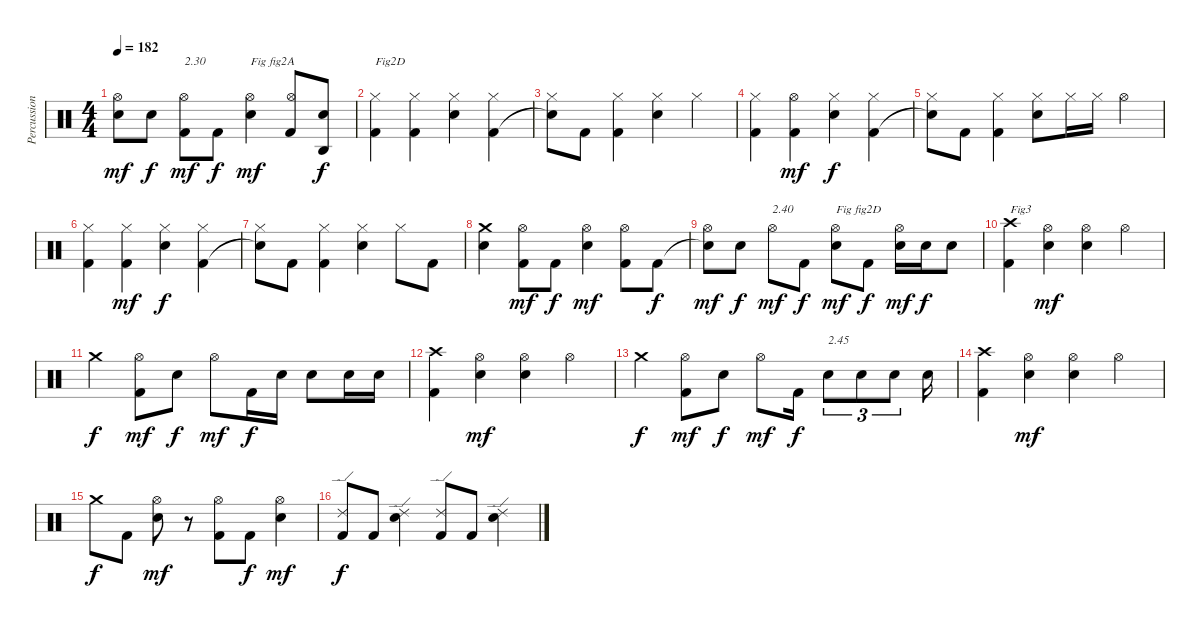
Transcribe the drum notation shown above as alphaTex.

\track ("Percussions" "Percussion") {instrument percussion}
\staff {score}
\articulation defaults
\ts (4 4)
\tempo 182
\clef neutral
\ks c
("Snare (hit)"{t} "Hi-Hat (open)").8{dy mf} "Electric Snare (hit)".8{dy f} ("Kick (hit) 2" "Hi-Hat (open)").8{txt "2.30" dy mf} "Kick (hit) 2".8{dy f} ("Electric Snare (hit)" "Hi-Hat (open)").4{txt "Fig fig2A" dy mf} ("Kick (hit) 2" "Hi-Hat (open)").8 ("Electric Snare (hit)" "Agogo high (hit)").8{dy f} |
("Kick (hit) 2" "Hi-Hat (closed)").4{txt "Fig2D"} ("Kick (hit) 2" "Hi-Hat (closed)").4 ("Electric Snare (hit)" "Hi-Hat (closed)").4 ("Kick (hit) 2" "Hi-Hat (closed)").4 |
("Snare (hit)"{t} "Hi-Hat (closed)").8 "Kick (hit) 2".8 ("Kick (hit) 2" "Hi-Hat (closed)").4 ("Electric Snare (hit)" "Hi-Hat (closed)").4 "Hi-Hat (closed)".4 |
("Kick (hit) 2" "Hi-Hat (closed)").4 ("Kick (hit) 2" "Hi-Hat (open)").4{dy mf} ("Electric Snare (hit)" "Hi-Hat (closed)").4{dy f} ("Kick (hit) 2" "Hi-Hat (closed)").4 |
("Snare (hit)"{t} "Hi-Hat (closed)").8 "Kick (hit) 2".8 ("Kick (hit) 2" "Hi-Hat (closed)").4 ("Electric Snare (hit)" "Hi-Hat (closed)").8 "Hi-Hat (closed)".16 "Hi-Hat (closed)".16 "Hi-Hat (open)".4 |
("Kick (hit) 2" "Hi-Hat (closed)").4 ("Kick (hit) 2" "Hi-Hat (closed)").4{dy mf} ("Electric Snare (hit)" "Hi-Hat (closed)").4{dy f} ("Kick (hit) 2" "Hi-Hat (closed)").4 |
("Snare (hit)"{t} "Hi-Hat (closed)").8 "Kick (hit) 2".8 ("Kick (hit) 2" "Hi-Hat (closed)").4 ("Electric Snare (hit)" "Hi-Hat (closed)").4 "Hi-Hat (closed)".8 "Kick (hit) 2".8 |
("Electric Snare (hit)" "Crash medium (hit)").4 ("Kick (hit) 2" "Hi-Hat (open)").8{dy mf} "Kick (hit) 2".8{dy f} ("Electric Snare (hit)" "Hi-Hat (open)").4{dy mf} ("Kick (hit) 2" "Hi-Hat (open)").8 "Kick (hit) 2".8{dy f} |
("Snare (hit)"{t} "Hi-Hat (open)").8{dy mf} "Electric Snare (hit)".8{dy f} "Hi-Hat (open)".8{txt "2.40" dy mf} "Kick (hit) 2".8{dy f} ("Electric Snare (hit)" "Hi-Hat (open)").8{txt "Fig fig2D" dy mf} "Kick (hit) 2".8{dy f} ("Electric Snare (hit)" "Hi-Hat (open)").16{dy mf} "Electric Snare (hit)".16{dy f} "Electric Snare (hit)".8 |
("Kick (hit) 2" "Crash high (hit)").4{txt "Fig3"} ("Electric Snare (hit)" "Hi-Hat (open)").4{dy mf} ("Electric Snare (hit)" "Hi-Hat (open)").4 "Hi-Hat (open)".4 |
"Crash medium (hit)".4{dy f} ("Kick (hit) 2" "Hi-Hat (open)").8{dy mf} "Electric Snare (hit)".8{dy f} "Hi-Hat (open)".8{dy mf} "Kick (hit) 2".16{dy f} "Electric Snare (hit)".16 "Electric Snare (hit)".8 "Electric Snare (hit)".16 "Electric Snare (hit)".16 |
("Kick (hit) 2" "Crash high (hit)").4 ("Electric Snare (hit)" "Hi-Hat (open)").4{dy mf} ("Electric Snare (hit)" "Hi-Hat (open)").4 "Hi-Hat (open)".4 |
"Crash medium (hit)".4{dy f} ("Kick (hit) 2" "Hi-Hat (open)").8{dy mf} "Electric Snare (hit)".8{dy f} "Hi-Hat (open)".8{dy mf} "Kick (hit) 2".16{dy f} "Electric Snare (hit)".8{tu (3 2) txt "2.45"} "Electric Snare (hit)".8{tu (3 2)} "Electric Snare (hit)".8{tu (3 2)} "Electric Snare (hit)".16 |
("Kick (hit) 2" "Crash high (hit)").4 ("Electric Snare (hit)" "Hi-Hat (open)").4{dy mf} ("Electric Snare (hit)" "Hi-Hat (open)").4 "Hi-Hat (open)".4 |
"Crash medium (hit)".8{dy f} "Kick (hit) 2".8 ("Electric Snare (hit)" "Hi-Hat (open)").8{dy mf} r.8 ("Kick (hit) 2" "Hi-Hat (open)").8 "Kick (hit) 2".8{dy f} ("Electric Snare (hit)" "Hi-Hat (open)").4{dy mf} |
("Kick (hit) 2" "Ride (edge) 2").8{dy f} "Kick (hit) 2".8 ("Electric Snare (hit)" "Ride (edge) 2").4 ("Kick (hit) 2" "Ride (edge) 2").8 "Kick (hit) 2".8 ("Electric Snare (hit)" "Ride (edge) 2").4
